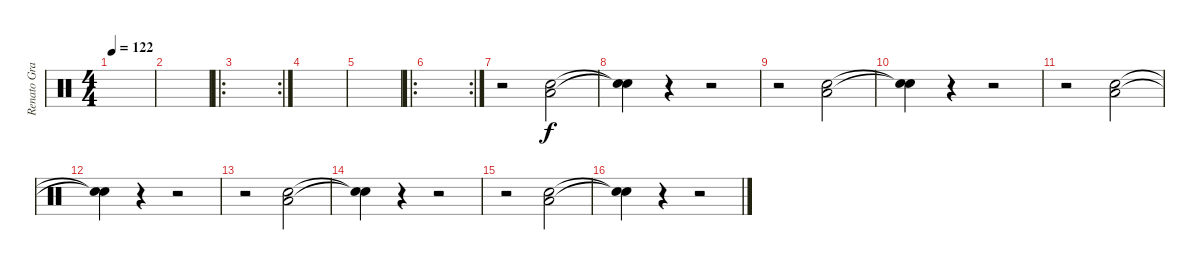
\track ("Renato Graccia" "Renato Gra") {instrument percussion}
\staff {score}
\articulation defaults
\ts (4 4)
\tempo 122
\clef neutral
\ks c
|
|
\ro
\rc 2
|
|
|
\ro
\rc 2
|
r.2 ("Low Floor Tom (hit)" "Snare (hit) 2").2 |
("Snare (hit)"{t} "Snare (hit)"{t}).4 r.4 r.2 |
r.2 ("Low Floor Tom (hit)" "Snare (hit) 2").2 |
("Snare (hit)"{t} "Snare (hit)"{t}).4 r.4 r.2 |
r.2 ("Low Floor Tom (hit)" "Snare (hit) 2").2 |
("Snare (hit)"{t} "Snare (hit)"{t}).4 r.4 r.2 |
r.2 ("Low Floor Tom (hit)" "Snare (hit) 2").2 |
("Snare (hit)"{t} "Snare (hit)"{t}).4 r.4 r.2 |
r.2 ("Low Floor Tom (hit)" "Snare (hit) 2").2 |
("Snare (hit)"{t} "Snare (hit)"{t}).4 r.4 r.2
